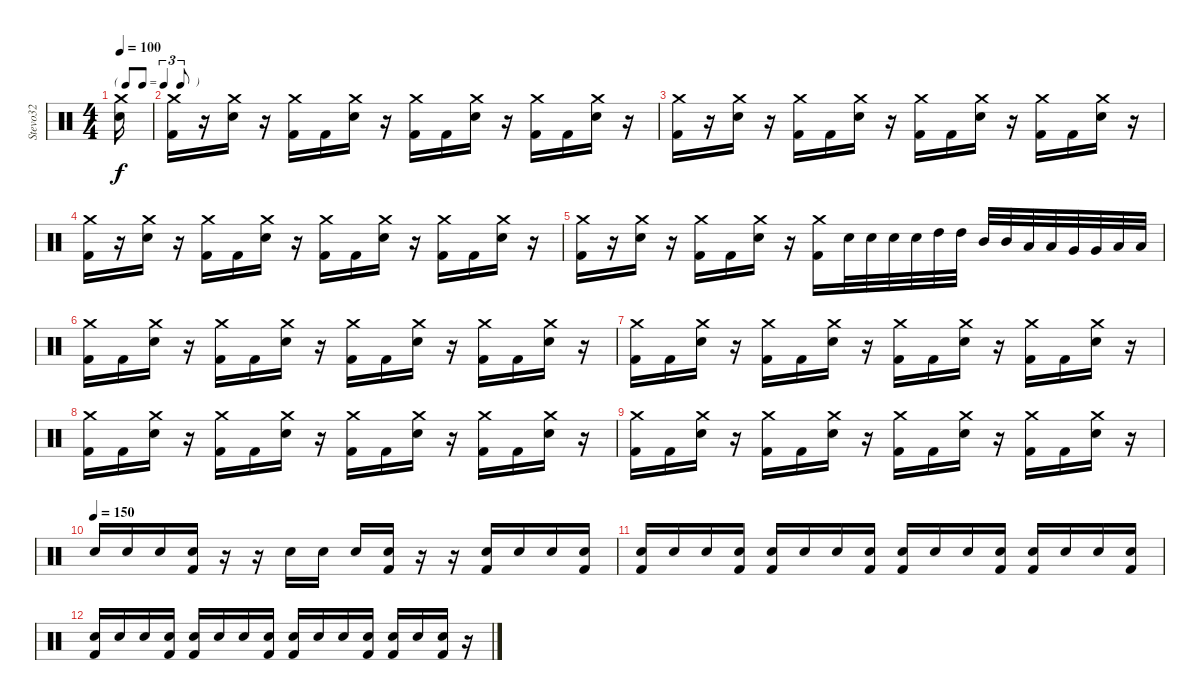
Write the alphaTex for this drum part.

\track ("Stevo32" "Stevo32") {instrument percussion}
\staff {score}
\articulation defaults
\ts (4 4)
\tf triplet8th
\tempo 100
\clef neutral
\ks c
("Crash medium (hit)" "Electric Snare (hit)").16{dy f} |
("Crash medium (hit)" "Kick (hit) 2").16 r.16 ("Crash medium (hit)" "Electric Snare (hit)").16 r.16 ("Crash medium (hit)" "Kick (hit) 2").16 "Kick (hit) 2".16 ("Crash medium (hit)" "Electric Snare (hit)").16 r.16 ("Crash medium (hit)" "Kick (hit) 2").16 "Kick (hit) 2".16 ("Crash medium (hit)" "Electric Snare (hit)").16 r.16 ("Crash medium (hit)" "Kick (hit) 2").16 "Kick (hit) 2".16 ("Crash medium (hit)" "Electric Snare (hit)").16 r.16 |
("Crash medium (hit)" "Kick (hit) 2").16 r.16 ("Crash medium (hit)" "Electric Snare (hit)").16 r.16 ("Crash medium (hit)" "Kick (hit) 2").16 "Kick (hit) 2".16 ("Crash medium (hit)" "Electric Snare (hit)").16 r.16 ("Crash medium (hit)" "Kick (hit) 2").16 "Kick (hit) 2".16 ("Crash medium (hit)" "Electric Snare (hit)").16 r.16 ("Crash medium (hit)" "Kick (hit) 2").16 "Kick (hit) 2".16 ("Crash medium (hit)" "Electric Snare (hit)").16 r.16 |
("Crash medium (hit)" "Kick (hit) 2").16 r.16 ("Crash medium (hit)" "Electric Snare (hit)").16 r.16 ("Crash medium (hit)" "Kick (hit) 2").16 "Kick (hit) 2".16 ("Crash medium (hit)" "Electric Snare (hit)").16 r.16 ("Crash medium (hit)" "Kick (hit) 2").16 "Kick (hit) 2".16 ("Crash medium (hit)" "Electric Snare (hit)").16 r.16 ("Crash medium (hit)" "Kick (hit) 2").16 "Kick (hit) 2".16 ("Crash medium (hit)" "Electric Snare (hit)").16 r.16 |
("Crash medium (hit)" "Kick (hit) 2").16 r.16 ("Crash medium (hit)" "Electric Snare (hit)").16 r.16 ("Crash medium (hit)" "Kick (hit) 2").16 "Kick (hit) 2".16 ("Crash medium (hit)" "Electric Snare (hit)").16 r.16 ("Crash medium (hit)" "Kick (hit) 2").16 "Electric Snare (hit)".32 "Electric Snare (hit)".32 "Electric Snare (hit)".32 "Electric Snare (hit)".32 "High Tom (hit)".32 "High Tom (hit)".32 "Mid Tom (hit)".32 "Mid Tom (hit)".32 "Low Tom (hit)".32 "Low Tom (hit)".32 "Very Low Tom (hit)".32 "Very Low Tom (hit)".32 "Low Floor Tom (hit)".32 "Low Floor Tom (hit)".32 |
("Crash medium (hit)" "Kick (hit) 2").16 "Kick (hit) 2".16 ("Crash medium (hit)" "Electric Snare (hit)").16 r.16 ("Crash medium (hit)" "Kick (hit) 2").16 "Kick (hit) 2".16 ("Crash medium (hit)" "Electric Snare (hit)").16 r.16 ("Crash medium (hit)" "Kick (hit) 2").16 "Kick (hit) 2".16 ("Crash medium (hit)" "Electric Snare (hit)").16 r.16 ("Crash medium (hit)" "Kick (hit) 2").16 "Kick (hit) 2".16 ("Crash medium (hit)" "Electric Snare (hit)").16 r.16 |
("Crash medium (hit)" "Kick (hit) 2").16 "Kick (hit) 2".16 ("Crash medium (hit)" "Electric Snare (hit)").16 r.16 ("Crash medium (hit)" "Kick (hit) 2").16 "Kick (hit) 2".16 ("Crash medium (hit)" "Electric Snare (hit)").16 r.16 ("Crash medium (hit)" "Kick (hit) 2").16 "Kick (hit) 2".16 ("Crash medium (hit)" "Electric Snare (hit)").16 r.16 ("Crash medium (hit)" "Kick (hit) 2").16 "Kick (hit) 2".16 ("Crash medium (hit)" "Electric Snare (hit)").16 r.16 |
("Crash medium (hit)" "Kick (hit) 2").16 "Kick (hit) 2".16 ("Crash medium (hit)" "Electric Snare (hit)").16 r.16 ("Crash medium (hit)" "Kick (hit) 2").16 "Kick (hit) 2".16 ("Crash medium (hit)" "Electric Snare (hit)").16 r.16 ("Crash medium (hit)" "Kick (hit) 2").16 "Kick (hit) 2".16 ("Crash medium (hit)" "Electric Snare (hit)").16 r.16 ("Crash medium (hit)" "Kick (hit) 2").16 "Kick (hit) 2".16 ("Crash medium (hit)" "Electric Snare (hit)").16 r.16 |
("Crash medium (hit)" "Kick (hit) 2").16 "Kick (hit) 2".16 ("Crash medium (hit)" "Electric Snare (hit)").16 r.16 ("Crash medium (hit)" "Kick (hit) 2").16 "Kick (hit) 2".16 ("Crash medium (hit)" "Electric Snare (hit)").16 r.16 ("Crash medium (hit)" "Kick (hit) 2").16 "Kick (hit) 2".16 ("Crash medium (hit)" "Electric Snare (hit)").16 r.16 ("Crash medium (hit)" "Kick (hit) 2").16 "Kick (hit) 2".16 ("Crash medium (hit)" "Electric Snare (hit)").16 r.16 |
\tempo (150)
"Electric Snare (hit)".16 "Electric Snare (hit)".16 "Electric Snare (hit)".16 ("Kick (hit) 2" "Electric Snare (hit)").16 r.16 r.16 "Electric Snare (hit)".16 "Electric Snare (hit)".16 "Electric Snare (hit)".16 ("Kick (hit) 2" "Electric Snare (hit)").16 r.16 r.16 ("Kick (hit) 2" "Electric Snare (hit)").16 "Electric Snare (hit)".16 "Electric Snare (hit)".16 ("Kick (hit) 2" "Electric Snare (hit)").16 |
("Kick (hit) 2" "Electric Snare (hit)").16 "Electric Snare (hit)".16 "Electric Snare (hit)".16 ("Kick (hit) 2" "Electric Snare (hit)").16 ("Kick (hit) 2" "Electric Snare (hit)").16 "Electric Snare (hit)".16 "Electric Snare (hit)".16 ("Kick (hit) 2" "Electric Snare (hit)").16 ("Kick (hit) 2" "Electric Snare (hit)").16 "Electric Snare (hit)".16 "Electric Snare (hit)".16 ("Kick (hit) 2" "Electric Snare (hit)").16 ("Kick (hit) 2" "Electric Snare (hit)").16 "Electric Snare (hit)".16 "Electric Snare (hit)".16 ("Kick (hit) 2" "Electric Snare (hit)").16 |
("Kick (hit) 2" "Electric Snare (hit)").16 "Electric Snare (hit)".16 "Electric Snare (hit)".16 ("Kick (hit) 2" "Electric Snare (hit)").16 ("Kick (hit) 2" "Electric Snare (hit)").16 "Electric Snare (hit)".16 "Electric Snare (hit)".16 ("Kick (hit) 2" "Electric Snare (hit)").16 ("Kick (hit) 2" "Electric Snare (hit)").16 "Electric Snare (hit)".16 "Electric Snare (hit)".16 ("Kick (hit) 2" "Electric Snare (hit)").16 ("Kick (hit) 2" "Electric Snare (hit)").16 "Electric Snare (hit)".16 ("Kick (hit) 2" "Electric Snare (hit)").16 r.16
